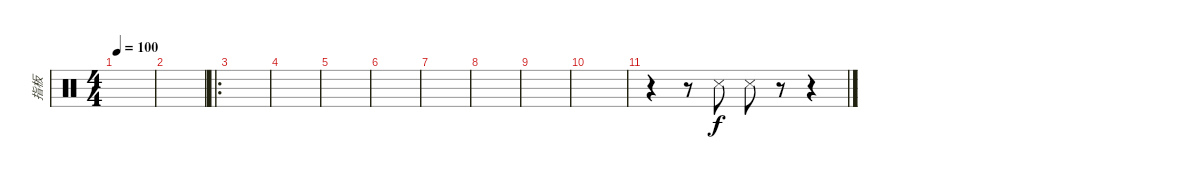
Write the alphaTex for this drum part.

\track ("指板" "指板") {instrument percussion}
\staff {score}
\articulation defaults
\ts (4 4)
\tempo 100
\clef neutral
\ks c
|
|
\ro
|
|
|
|
|
|
|
|
r.4 r.8 "Snare (side stick) 3".8 "Snare (side stick) 3".8 r.8 r.4
